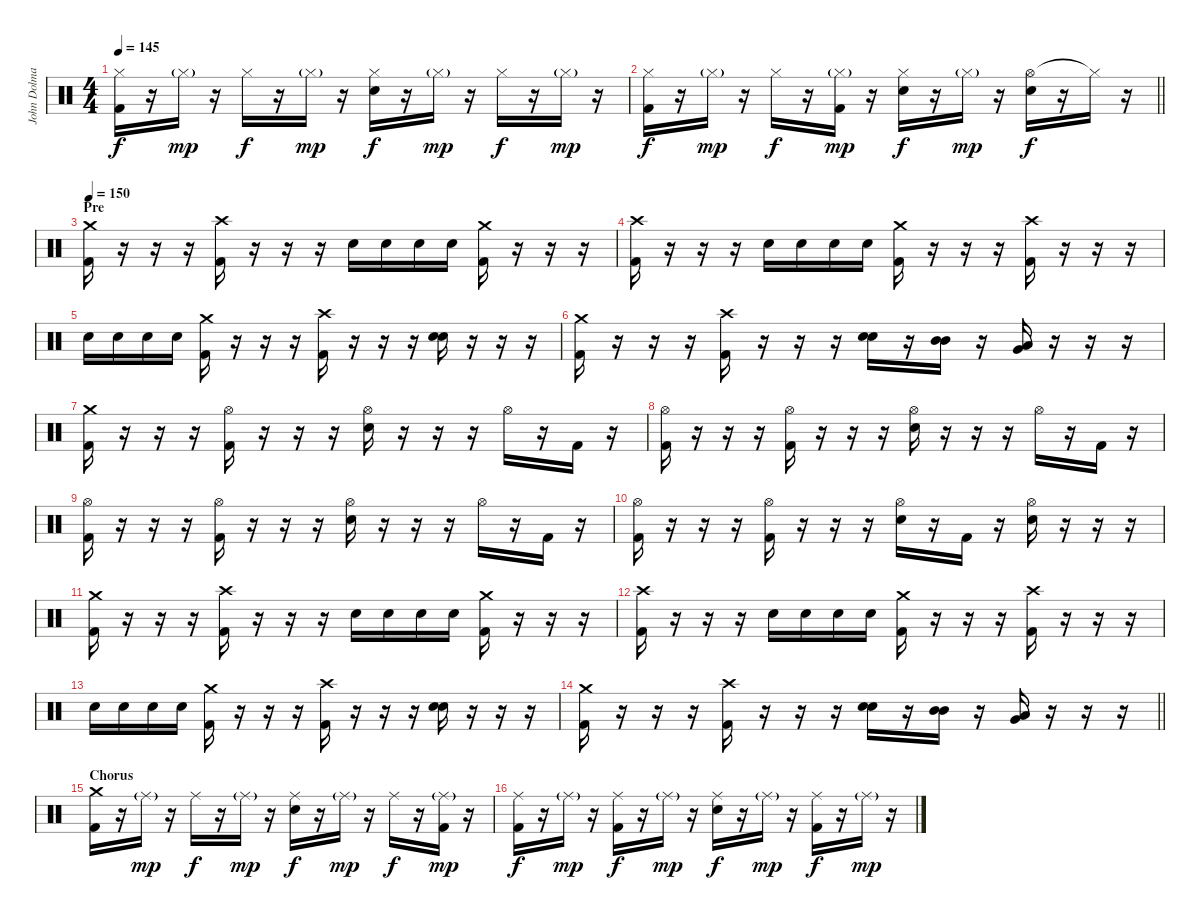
\track ("John Dolmayan" "John Dolma") {instrument percussion}
\staff {score}
\articulation defaults
\ts (4 4)
\tempo 145
\clef neutral
\ks c
("Hi-Hat (closed)" "Kick (hit) 2").16{dy f} r.16 "Hi-Hat (closed)"{g}.16{dy mp} r.16 "Hi-Hat (closed)".16{dy f} r.16 "Hi-Hat (closed)"{g}.16{dy mp} r.16 ("Hi-Hat (closed)" "Electric Snare (hit)").16{dy f} r.16 "Hi-Hat (closed)"{g}.16{dy mp} r.16 "Hi-Hat (closed)".16{dy f} r.16 "Hi-Hat (closed)"{g}.16{dy mp} r.16 |
\barLineRight lightlight
("Hi-Hat (closed)" "Kick (hit) 2").16{dy f} r.16 "Hi-Hat (closed)"{g}.16{dy mp} r.16 "Hi-Hat (closed)".16{dy f} r.16 ("Hi-Hat (closed)"{g} "Kick (hit) 2").16{dy mp} r.16 ("Hi-Hat (closed)" "Electric Snare (hit)").16{dy f} r.16 "Hi-Hat (closed)"{g}.16{dy mp} r.16 ("Hi-Hat (open)" "Electric Snare (hit)").16{dy f} r.16 "Hi-Hat (closed)"{t}.16 r.16 |
\section ("" "Pre")
\tempo 150
("Crash medium (hit)" "Kick (hit) 2").16 r.16 r.16 r.16 ("Crash high (hit)" "Kick (hit) 2").16 r.16 r.16 r.16 "Electric Snare (hit)".16 "Electric Snare (hit)".16 "Electric Snare (hit)".16 "Electric Snare (hit)".16 ("Crash medium (hit)" "Kick (hit) 2").16 r.16 r.16 r.16 |
("Crash high (hit)" "Kick (hit) 2").16 r.16 r.16 r.16 "Electric Snare (hit)".16 "Electric Snare (hit)".16 "Electric Snare (hit)".16 "Electric Snare (hit)".16 ("Crash medium (hit)" "Kick (hit) 2").16 r.16 r.16 r.16 ("Crash high (hit)" "Kick (hit) 2").16 r.16 r.16 r.16 |
"Electric Snare (hit)".16 "Electric Snare (hit)".16 "Electric Snare (hit)".16 "Electric Snare (hit)".16 ("Crash medium (hit)" "Kick (hit) 2").16 r.16 r.16 r.16 ("Crash high (hit)" "Kick (hit) 2").16 r.16 r.16 r.16 ("Electric Snare (hit)" "Electric Snare (hit)").16 r.16 r.16 r.16 |
("Crash medium (hit)" "Kick (hit) 2").16 r.16 r.16 r.16 ("Crash high (hit)" "Kick (hit) 2").16 r.16 r.16 r.16 ("Electric Snare (hit)" "Electric Snare (hit)").16 r.16 ("Mid Tom (hit)" "Mid Tom (hit)").16 r.16 ("Low Tom (hit)" "Very Low Tom (hit)").16 r.16 r.16 r.16 |
("Crash medium (hit)" "Kick (hit) 2").16 r.16 r.16 r.16 ("Hi-Hat (open)" "Kick (hit) 2").16 r.16 r.16 r.16 ("Hi-Hat (open)" "Electric Snare (hit)").16 r.16 r.16 r.16 "Hi-Hat (open)".16 r.16 "Kick (hit) 2".16 r.16 |
("Hi-Hat (open)" "Kick (hit) 2").16 r.16 r.16 r.16 ("Hi-Hat (open)" "Kick (hit) 2").16 r.16 r.16 r.16 ("Hi-Hat (open)" "Electric Snare (hit)").16 r.16 r.16 r.16 "Hi-Hat (open)".16 r.16 "Kick (hit) 2".16 r.16 |
("Hi-Hat (open)" "Kick (hit) 2").16 r.16 r.16 r.16 ("Hi-Hat (open)" "Kick (hit) 2").16 r.16 r.16 r.16 ("Hi-Hat (open)" "Electric Snare (hit)").16 r.16 r.16 r.16 "Hi-Hat (open)".16 r.16 "Kick (hit) 2".16 r.16 |
("Hi-Hat (open)" "Kick (hit) 2").16 r.16 r.16 r.16 ("Hi-Hat (open)" "Kick (hit) 2").16 r.16 r.16 r.16 ("Hi-Hat (open)" "Electric Snare (hit)").16 r.16 "Kick (hit) 2".16 r.16 ("Hi-Hat (open)" "Electric Snare (hit)").16 r.16 r.16 r.16 |
("Crash medium (hit)" "Kick (hit) 2").16 r.16 r.16 r.16 ("Crash high (hit)" "Kick (hit) 2").16 r.16 r.16 r.16 "Electric Snare (hit)".16 "Electric Snare (hit)".16 "Electric Snare (hit)".16 "Electric Snare (hit)".16 ("Crash medium (hit)" "Kick (hit) 2").16 r.16 r.16 r.16 |
("Crash high (hit)" "Kick (hit) 2").16 r.16 r.16 r.16 "Electric Snare (hit)".16 "Electric Snare (hit)".16 "Electric Snare (hit)".16 "Electric Snare (hit)".16 ("Crash medium (hit)" "Kick (hit) 2").16 r.16 r.16 r.16 ("Crash high (hit)" "Kick (hit) 2").16 r.16 r.16 r.16 |
"Electric Snare (hit)".16 "Electric Snare (hit)".16 "Electric Snare (hit)".16 "Electric Snare (hit)".16 ("Crash medium (hit)" "Kick (hit) 2").16 r.16 r.16 r.16 ("Crash high (hit)" "Kick (hit) 2").16 r.16 r.16 r.16 ("Electric Snare (hit)" "Electric Snare (hit)").16 r.16 r.16 r.16 |
\barLineRight lightlight
("Crash medium (hit)" "Kick (hit) 2").16 r.16 r.16 r.16 ("Crash high (hit)" "Kick (hit) 2").16 r.16 r.16 r.16 ("Electric Snare (hit)" "Electric Snare (hit)").16 r.16 ("Mid Tom (hit)" "Mid Tom (hit)").16 r.16 ("Low Tom (hit)" "Very Low Tom (hit)").16 r.16 r.16 r.16 |
\section ("" "Chorus")
("Crash medium (hit)" "Kick (hit) 2").16 r.16 "Ride (middle)"{g}.16{dy mp} r.16 "Ride (middle)".16{dy f} r.16 "Ride (middle)"{g}.16{dy mp} r.16 ("Ride (middle)" "Electric Snare (hit)").16{dy f} r.16 "Ride (middle)"{g}.16{dy mp} r.16 "Ride (middle)".16{dy f} r.16 ("Ride (middle)"{g} "Kick (hit) 2").16{dy mp} r.16 |
("Ride (middle)" "Kick (hit) 2").16{dy f} r.16 "Ride (middle)"{g}.16{dy mp} r.16 ("Ride (middle)" "Kick (hit) 2").16{dy f} r.16 "Ride (middle)"{g}.16{dy mp} r.16 ("Ride (middle)" "Electric Snare (hit)").16{dy f} r.16 "Ride (middle)"{g}.16{dy mp} r.16 ("Ride (middle)" "Kick (hit) 2").16{dy f} r.16 "Ride (middle)"{g}.16{dy mp} r.16
